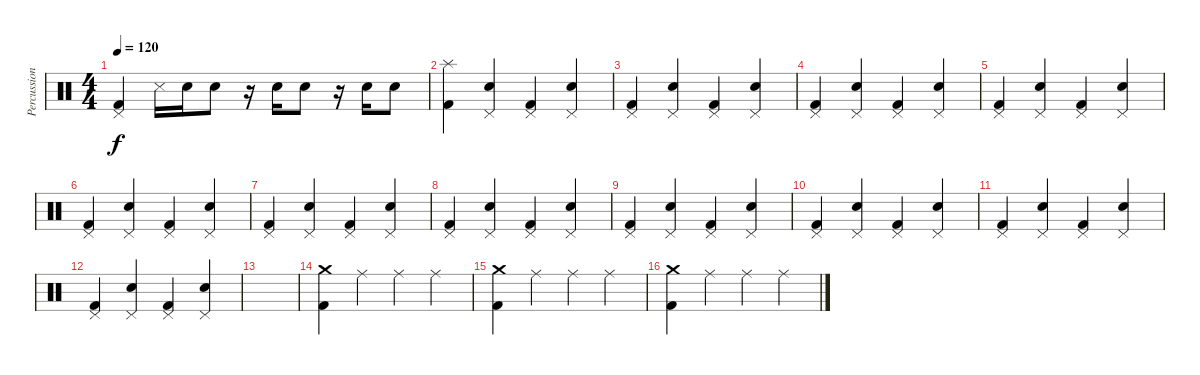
\track ("Percussion" "Percussion") {instrument percussion}
\staff {score}
\articulation defaults
\ts (4 4)
\tempo 120
\clef neutral
\ks c
("Pedal Hi-Hat (hit)" "Kick (hit) 2").4{dy f} "Snare (side stick) 3".16 "Electric Snare (hit)".16 "Electric Snare (hit)".8 r.16 "Electric Snare (hit)".16 "Electric Snare (hit)".8 r.16 "Electric Snare (hit)".16 "Electric Snare (hit)".8 |
("Splash (hit)" "Kick (hit) 2").4 ("Pedal Hi-Hat (hit)" "Electric Snare (hit)").4 ("Pedal Hi-Hat (hit)" "Kick (hit) 2").4 ("Pedal Hi-Hat (hit)" "Electric Snare (hit)").4 |
("Pedal Hi-Hat (hit)" "Kick (hit) 2").4 ("Pedal Hi-Hat (hit)" "Electric Snare (hit)").4 ("Pedal Hi-Hat (hit)" "Kick (hit) 2").4 ("Pedal Hi-Hat (hit)" "Electric Snare (hit)").4 |
("Pedal Hi-Hat (hit)" "Kick (hit) 2").4 ("Pedal Hi-Hat (hit)" "Electric Snare (hit)").4 ("Pedal Hi-Hat (hit)" "Kick (hit) 2").4 ("Pedal Hi-Hat (hit)" "Electric Snare (hit)").4 |
("Pedal Hi-Hat (hit)" "Kick (hit) 2").4 ("Pedal Hi-Hat (hit)" "Electric Snare (hit)").4 ("Pedal Hi-Hat (hit)" "Kick (hit) 2").4 ("Pedal Hi-Hat (hit)" "Electric Snare (hit)").4 |
("Pedal Hi-Hat (hit)" "Kick (hit) 2").4 ("Pedal Hi-Hat (hit)" "Electric Snare (hit)").4 ("Pedal Hi-Hat (hit)" "Kick (hit) 2").4 ("Pedal Hi-Hat (hit)" "Electric Snare (hit)").4 |
("Pedal Hi-Hat (hit)" "Kick (hit) 2").4 ("Pedal Hi-Hat (hit)" "Electric Snare (hit)").4 ("Pedal Hi-Hat (hit)" "Kick (hit) 2").4 ("Pedal Hi-Hat (hit)" "Electric Snare (hit)").4 |
("Pedal Hi-Hat (hit)" "Kick (hit) 2").4 ("Pedal Hi-Hat (hit)" "Electric Snare (hit)").4 ("Pedal Hi-Hat (hit)" "Kick (hit) 2").4 ("Pedal Hi-Hat (hit)" "Electric Snare (hit)").4 |
("Pedal Hi-Hat (hit)" "Kick (hit) 2").4 ("Pedal Hi-Hat (hit)" "Electric Snare (hit)").4 ("Pedal Hi-Hat (hit)" "Kick (hit) 2").4 ("Pedal Hi-Hat (hit)" "Electric Snare (hit)").4 |
("Pedal Hi-Hat (hit)" "Kick (hit) 2").4 ("Pedal Hi-Hat (hit)" "Electric Snare (hit)").4 ("Pedal Hi-Hat (hit)" "Kick (hit) 2").4 ("Pedal Hi-Hat (hit)" "Electric Snare (hit)").4 |
("Pedal Hi-Hat (hit)" "Kick (hit) 2").4 ("Pedal Hi-Hat (hit)" "Electric Snare (hit)").4 ("Pedal Hi-Hat (hit)" "Kick (hit) 2").4 ("Pedal Hi-Hat (hit)" "Electric Snare (hit)").4 |
("Pedal Hi-Hat (hit)" "Kick (hit) 2").4 ("Pedal Hi-Hat (hit)" "Electric Snare (hit)").4 ("Pedal Hi-Hat (hit)" "Kick (hit) 2").4 ("Pedal Hi-Hat (hit)" "Electric Snare (hit)").4 |
|
("Kick (hit) 2" "Crash medium (hit)").4 "Ride (middle)".4 "Ride (middle)".4 "Ride (middle)".4 |
("Kick (hit) 2" "Crash medium (hit)").4 "Ride (middle)".4 "Ride (middle)".4 "Ride (middle)".4 |
("Kick (hit) 2" "Crash medium (hit)").4 "Ride (middle)".4 "Ride (middle)".4 "Ride (middle)".4
